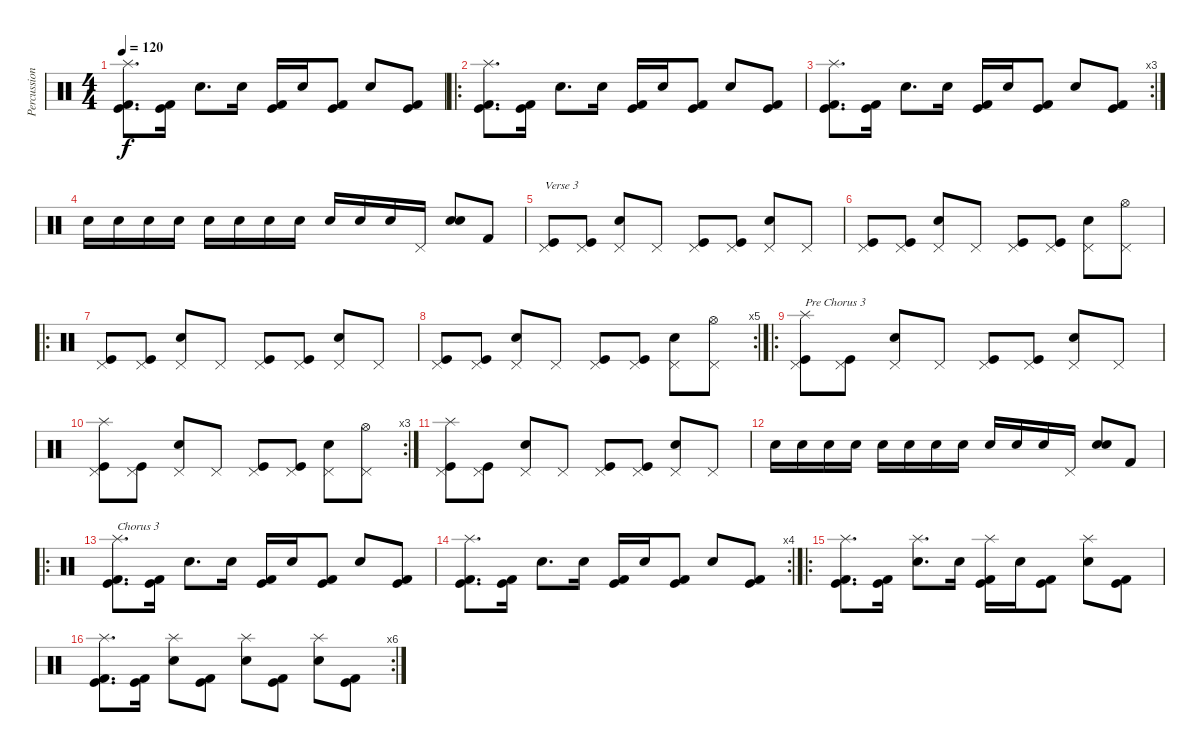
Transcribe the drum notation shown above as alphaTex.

\track ("Percussion" "Percussion") {instrument percussion}
\staff {score}
\articulation defaults
\ts (4 4)
\tempo 120
\clef neutral
\ks c
("Splash (hit)" "Kick (hit)" "Kick (hit) 2").8{d dy f} ("Kick (hit)" "Kick (hit) 2").16 "Snare (hit) 2".8{d} "Snare (hit) 2".16 ("Kick (hit)" "Kick (hit) 2").16 "Snare (hit) 2".16 ("Kick (hit)" "Kick (hit) 2").8 "Snare (hit) 2".8 ("Kick (hit)" "Kick (hit) 2").8 |
\ro
("Splash (hit)" "Kick (hit)" "Kick (hit) 2").8{d} ("Kick (hit)" "Kick (hit) 2").16 "Snare (hit) 2".8{d} "Snare (hit) 2".16 ("Kick (hit)" "Kick (hit) 2").16 "Snare (hit) 2".16 ("Kick (hit)" "Kick (hit) 2").8 "Snare (hit) 2".8 ("Kick (hit)" "Kick (hit) 2").8 |
\rc 3
("Splash (hit)" "Kick (hit)" "Kick (hit) 2").8{d} ("Kick (hit)" "Kick (hit) 2").16 "Snare (hit) 2".8{d} "Snare (hit) 2".16 ("Kick (hit)" "Kick (hit) 2").16 "Snare (hit) 2".16 ("Kick (hit)" "Kick (hit) 2").8 "Snare (hit) 2".8 ("Kick (hit)" "Kick (hit) 2").8 |
"Snare (hit) 2".16 "Snare (hit) 2".16 "Snare (hit) 2".16 "Snare (hit) 2".16 "Snare (hit) 2".16 "Snare (hit) 2".16 "Snare (hit) 2".16 "Snare (hit) 2".16 "Snare (hit) 2".16 "Snare (hit) 2".16 "Snare (hit) 2".16 "Pedal Hi-Hat (hit)".16 ("Electric Snare (hit)" "Snare (hit) 2").8 "Kick (hit) 2".8 |
("Pedal Hi-Hat (hit)" "Kick (hit)").8{txt "Verse 3"} ("Pedal Hi-Hat (hit)" "Kick (hit)").8 ("Pedal Hi-Hat (hit)" "Snare (hit) 2").8 "Pedal Hi-Hat (hit)".8 ("Pedal Hi-Hat (hit)" "Kick (hit)").8 ("Pedal Hi-Hat (hit)" "Kick (hit)").8 ("Pedal Hi-Hat (hit)" "Snare (hit) 2").8 "Pedal Hi-Hat (hit)".8 |
("Pedal Hi-Hat (hit)" "Kick (hit)").8 ("Pedal Hi-Hat (hit)" "Kick (hit)").8 ("Pedal Hi-Hat (hit)" "Snare (hit) 2").8 "Pedal Hi-Hat (hit)".8 ("Pedal Hi-Hat (hit)" "Kick (hit)").8 ("Pedal Hi-Hat (hit)" "Kick (hit)").8 ("Pedal Hi-Hat (hit)" "Snare (hit) 2").8 ("Pedal Hi-Hat (hit)" "Hi-Hat (open)").8 |
\ro
("Pedal Hi-Hat (hit)" "Kick (hit)").8 ("Pedal Hi-Hat (hit)" "Kick (hit)").8 ("Pedal Hi-Hat (hit)" "Snare (hit) 2").8 "Pedal Hi-Hat (hit)".8 ("Pedal Hi-Hat (hit)" "Kick (hit)").8 ("Pedal Hi-Hat (hit)" "Kick (hit)").8 ("Pedal Hi-Hat (hit)" "Snare (hit) 2").8 "Pedal Hi-Hat (hit)".8 |
\rc 5
("Pedal Hi-Hat (hit)" "Kick (hit)").8 ("Pedal Hi-Hat (hit)" "Kick (hit)").8 ("Pedal Hi-Hat (hit)" "Snare (hit) 2").8 "Pedal Hi-Hat (hit)".8 ("Pedal Hi-Hat (hit)" "Kick (hit)").8 ("Pedal Hi-Hat (hit)" "Kick (hit)").8 ("Pedal Hi-Hat (hit)" "Snare (hit) 2").8 ("Pedal Hi-Hat (hit)" "Hi-Hat (open)").8 |
\ro
("Splash (hit)" "Pedal Hi-Hat (hit)" "Kick (hit)").8{txt "Pre Chorus 3"} ("Pedal Hi-Hat (hit)" "Kick (hit)").8 ("Pedal Hi-Hat (hit)" "Snare (hit) 2").8 "Pedal Hi-Hat (hit)".8 ("Pedal Hi-Hat (hit)" "Kick (hit)").8 ("Pedal Hi-Hat (hit)" "Kick (hit)").8 ("Pedal Hi-Hat (hit)" "Snare (hit) 2").8 "Pedal Hi-Hat (hit)".8 |
\rc 3
("Splash (hit)" "Pedal Hi-Hat (hit)" "Kick (hit)").8 ("Pedal Hi-Hat (hit)" "Kick (hit)").8 ("Pedal Hi-Hat (hit)" "Snare (hit) 2").8 "Pedal Hi-Hat (hit)".8 ("Pedal Hi-Hat (hit)" "Kick (hit)").8 ("Pedal Hi-Hat (hit)" "Kick (hit)").8 ("Pedal Hi-Hat (hit)" "Snare (hit) 2").8 ("Pedal Hi-Hat (hit)" "Hi-Hat (open)").8 |
("Splash (hit)" "Pedal Hi-Hat (hit)" "Kick (hit)").8 ("Pedal Hi-Hat (hit)" "Kick (hit)").8 ("Pedal Hi-Hat (hit)" "Snare (hit) 2").8 "Pedal Hi-Hat (hit)".8 ("Pedal Hi-Hat (hit)" "Kick (hit)").8 ("Pedal Hi-Hat (hit)" "Kick (hit)").8 ("Pedal Hi-Hat (hit)" "Snare (hit) 2").8 "Pedal Hi-Hat (hit)".8 |
"Snare (hit) 2".16 "Snare (hit) 2".16 "Snare (hit) 2".16 "Snare (hit) 2".16 "Snare (hit) 2".16 "Snare (hit) 2".16 "Snare (hit) 2".16 "Snare (hit) 2".16 "Snare (hit) 2".16 "Snare (hit) 2".16 "Snare (hit) 2".16 "Pedal Hi-Hat (hit)".16 ("Electric Snare (hit)" "Snare (hit) 2").8 "Kick (hit) 2".8 |
\ro
("Splash (hit)" "Kick (hit)" "Kick (hit) 2").8{d txt "Chorus 3"} ("Kick (hit)" "Kick (hit) 2").16 "Snare (hit) 2".8{d} "Snare (hit) 2".16 ("Kick (hit)" "Kick (hit) 2").16 "Snare (hit) 2".16 ("Kick (hit)" "Kick (hit) 2").8 "Snare (hit) 2".8 ("Kick (hit)" "Kick (hit) 2").8 |
\rc 4
("Splash (hit)" "Kick (hit)" "Kick (hit) 2").8{d} ("Kick (hit)" "Kick (hit) 2").16 "Snare (hit) 2".8{d} "Snare (hit) 2".16 ("Kick (hit)" "Kick (hit) 2").16 "Snare (hit) 2".16 ("Kick (hit)" "Kick (hit) 2").8 "Snare (hit) 2".8 ("Kick (hit)" "Kick (hit) 2").8 |
\ro
("Splash (hit)" "Kick (hit)" "Kick (hit) 2").8{d} ("Kick (hit)" "Kick (hit) 2").16 ("Splash (hit)" "Snare (hit) 2").8{d} "Snare (hit) 2".16 ("Splash (hit)" "Kick (hit)" "Kick (hit) 2").16 "Snare (hit) 2".16 ("Kick (hit)" "Kick (hit) 2").8 ("Splash (hit)" "Snare (hit) 2").8 ("Kick (hit)" "Kick (hit) 2").8 |
\rc 6
("Splash (hit)" "Kick (hit)" "Kick (hit) 2").8{d} ("Kick (hit)" "Kick (hit) 2").16 ("Splash (hit)" "Snare (hit) 2").8 ("Kick (hit)" "Kick (hit) 2").8 ("Splash (hit)" "Snare (hit) 2").8 ("Kick (hit)" "Kick (hit) 2").8 ("Splash (hit)" "Snare (hit) 2").8 ("Kick (hit)" "Kick (hit) 2").8
